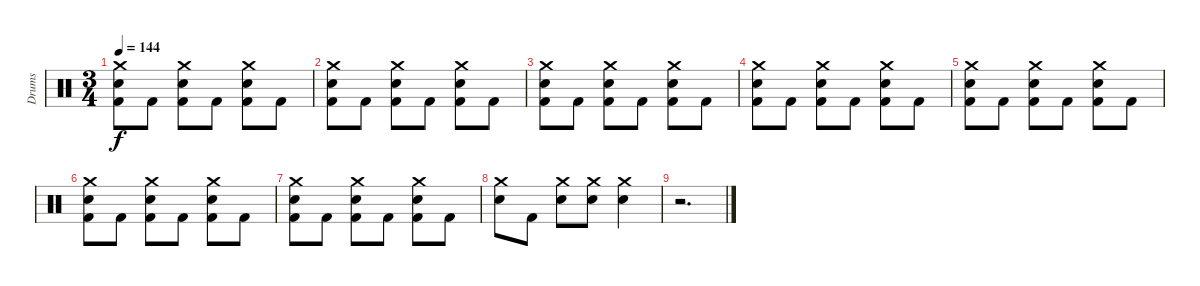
\track ("Drums" "Drums") {instrument percussion}
\staff {score}
\articulation defaults
\ts (3 4)
\tempo 144
\clef neutral
\ks c
("Crash medium (hit)" "Snare (hit) 2" "Kick (hit) 2").8{dy f} "Kick (hit) 2".8 ("Crash medium (hit)" "Snare (hit) 2" "Kick (hit) 2").8 "Kick (hit) 2".8 ("Crash medium (hit)" "Snare (hit) 2" "Kick (hit) 2").8 "Kick (hit) 2".8 |
("Crash medium (hit)" "Snare (hit) 2" "Kick (hit) 2").8 "Kick (hit) 2".8 ("Crash medium (hit)" "Snare (hit) 2" "Kick (hit) 2").8 "Kick (hit) 2".8 ("Crash medium (hit)" "Snare (hit) 2" "Kick (hit) 2").8 "Kick (hit) 2".8 |
("Crash medium (hit)" "Snare (hit) 2" "Kick (hit) 2").8 "Kick (hit) 2".8 ("Crash medium (hit)" "Snare (hit) 2" "Kick (hit) 2").8 "Kick (hit) 2".8 ("Crash medium (hit)" "Snare (hit) 2" "Kick (hit) 2").8 "Kick (hit) 2".8 |
("Crash medium (hit)" "Snare (hit) 2" "Kick (hit) 2").8 "Kick (hit) 2".8 ("Crash medium (hit)" "Snare (hit) 2" "Kick (hit) 2").8 "Kick (hit) 2".8 ("Crash medium (hit)" "Snare (hit) 2" "Kick (hit) 2").8 "Kick (hit) 2".8 |
("Crash medium (hit)" "Snare (hit) 2" "Kick (hit) 2").8 "Kick (hit) 2".8 ("Crash medium (hit)" "Snare (hit) 2" "Kick (hit) 2").8 "Kick (hit) 2".8 ("Crash medium (hit)" "Snare (hit) 2" "Kick (hit) 2").8 "Kick (hit) 2".8 |
("Crash medium (hit)" "Snare (hit) 2" "Kick (hit) 2").8 "Kick (hit) 2".8 ("Crash medium (hit)" "Snare (hit) 2" "Kick (hit) 2").8 "Kick (hit) 2".8 ("Crash medium (hit)" "Snare (hit) 2" "Kick (hit) 2").8 "Kick (hit) 2".8 |
("Crash medium (hit)" "Snare (hit) 2" "Kick (hit) 2").8 "Kick (hit) 2".8 ("Crash medium (hit)" "Snare (hit) 2" "Kick (hit) 2").8 "Kick (hit) 2".8 ("Crash medium (hit)" "Snare (hit) 2" "Kick (hit) 2").8 "Kick (hit) 2".8 |
("Crash medium (hit)" "Snare (hit) 2").8 "Kick (hit) 2".8 ("Crash medium (hit)" "Snare (hit) 2").8 ("Crash medium (hit)" "Snare (hit) 2").8 ("Crash medium (hit)" "Snare (hit) 2").4 |
r.2{d}
